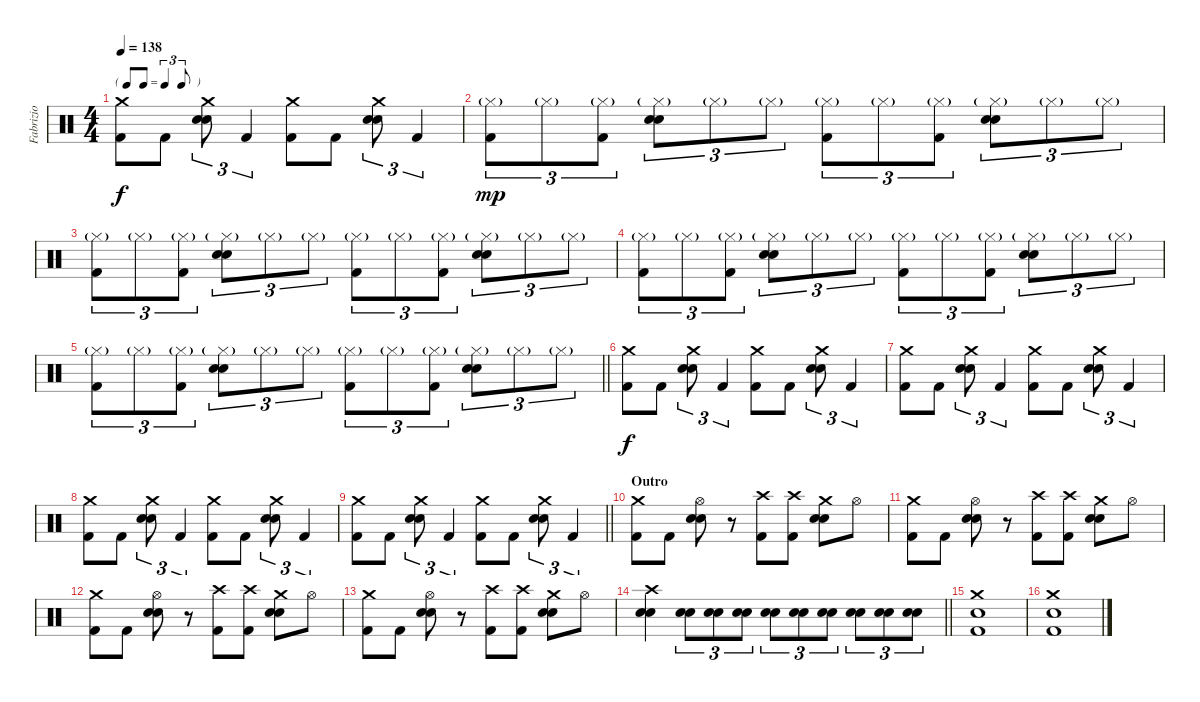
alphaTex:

\track ("Fabrizio" "Fabrizio") {instrument percussion}
\staff {score}
\articulation defaults
\ts (4 4)
\tf triplet8th
\tempo 138
\clef neutral
\ks c
("Crash medium (hit)" "Kick (hit) 2").8{dy f} "Kick (hit) 2".8 ("Crash medium (hit)" "Electric Snare (hit)" "Snare (hit) 2").8{tu (3 2)} "Kick (hit) 2".4{tu (3 2)} ("Crash medium (hit)" "Kick (hit) 2").8 "Kick (hit) 2".8 ("Crash medium (hit)" "Electric Snare (hit)" "Snare (hit) 2").8{tu (3 2)} "Kick (hit) 2".4{tu (3 2)} |
("Hi-Hat (closed)"{g} "Kick (hit) 2").8{tu (3 2) dy mp} "Hi-Hat (closed)"{g}.8{tu (3 2)} ("Hi-Hat (closed)"{g} "Kick (hit) 2").8{tu (3 2)} ("Hi-Hat (closed)"{g} "Electric Snare (hit)" "Snare (hit) 2").8{tu (3 2)} "Hi-Hat (closed)"{g}.8{tu (3 2)} "Hi-Hat (closed)"{g}.8{tu (3 2)} ("Hi-Hat (closed)"{g} "Kick (hit) 2").8{tu (3 2)} "Hi-Hat (closed)"{g}.8{tu (3 2)} ("Hi-Hat (closed)"{g} "Kick (hit) 2").8{tu (3 2)} ("Hi-Hat (closed)"{g} "Electric Snare (hit)" "Snare (hit) 2").8{tu (3 2)} "Hi-Hat (closed)"{g}.8{tu (3 2)} "Hi-Hat (closed)"{g}.8{tu (3 2)} |
("Hi-Hat (closed)"{g} "Kick (hit) 2").8{tu (3 2)} "Hi-Hat (closed)"{g}.8{tu (3 2)} ("Hi-Hat (closed)"{g} "Kick (hit) 2").8{tu (3 2)} ("Hi-Hat (closed)"{g} "Electric Snare (hit)" "Snare (hit) 2").8{tu (3 2)} "Hi-Hat (closed)"{g}.8{tu (3 2)} "Hi-Hat (closed)"{g}.8{tu (3 2)} ("Hi-Hat (closed)"{g} "Kick (hit) 2").8{tu (3 2)} "Hi-Hat (closed)"{g}.8{tu (3 2)} ("Hi-Hat (closed)"{g} "Kick (hit) 2").8{tu (3 2)} ("Hi-Hat (closed)"{g} "Electric Snare (hit)" "Snare (hit) 2").8{tu (3 2)} "Hi-Hat (closed)"{g}.8{tu (3 2)} "Hi-Hat (closed)"{g}.8{tu (3 2)} |
("Hi-Hat (closed)"{g} "Kick (hit) 2").8{tu (3 2)} "Hi-Hat (closed)"{g}.8{tu (3 2)} ("Hi-Hat (closed)"{g} "Kick (hit) 2").8{tu (3 2)} ("Hi-Hat (closed)"{g} "Electric Snare (hit)" "Snare (hit) 2").8{tu (3 2)} "Hi-Hat (closed)"{g}.8{tu (3 2)} "Hi-Hat (closed)"{g}.8{tu (3 2)} ("Hi-Hat (closed)"{g} "Kick (hit) 2").8{tu (3 2)} "Hi-Hat (closed)"{g}.8{tu (3 2)} ("Hi-Hat (closed)"{g} "Kick (hit) 2").8{tu (3 2)} ("Hi-Hat (closed)"{g} "Electric Snare (hit)" "Snare (hit) 2").8{tu (3 2)} "Hi-Hat (closed)"{g}.8{tu (3 2)} "Hi-Hat (closed)"{g}.8{tu (3 2)} |
\barLineRight lightlight
("Hi-Hat (closed)"{g} "Kick (hit) 2").8{tu (3 2)} "Hi-Hat (closed)"{g}.8{tu (3 2)} ("Hi-Hat (closed)"{g} "Kick (hit) 2").8{tu (3 2)} ("Hi-Hat (closed)"{g} "Electric Snare (hit)" "Snare (hit) 2").8{tu (3 2)} "Hi-Hat (closed)"{g}.8{tu (3 2)} "Hi-Hat (closed)"{g}.8{tu (3 2)} ("Hi-Hat (closed)"{g} "Kick (hit) 2").8{tu (3 2)} "Hi-Hat (closed)"{g}.8{tu (3 2)} ("Hi-Hat (closed)"{g} "Kick (hit) 2").8{tu (3 2)} ("Hi-Hat (closed)"{g} "Electric Snare (hit)" "Snare (hit) 2").8{tu (3 2)} "Hi-Hat (closed)"{g}.8{tu (3 2)} "Hi-Hat (closed)"{g}.8{tu (3 2)} |
("Crash medium (hit)" "Kick (hit) 2").8{dy f} "Kick (hit) 2".8 ("Crash medium (hit)" "Electric Snare (hit)" "Snare (hit) 2").8{tu (3 2)} "Kick (hit) 2".4{tu (3 2)} ("Crash medium (hit)" "Kick (hit) 2").8 "Kick (hit) 2".8 ("Crash medium (hit)" "Electric Snare (hit)" "Snare (hit) 2").8{tu (3 2)} "Kick (hit) 2".4{tu (3 2)} |
("Crash medium (hit)" "Kick (hit) 2").8 "Kick (hit) 2".8 ("Crash medium (hit)" "Electric Snare (hit)" "Snare (hit) 2").8{tu (3 2)} "Kick (hit) 2".4{tu (3 2)} ("Crash medium (hit)" "Kick (hit) 2").8 "Kick (hit) 2".8 ("Crash medium (hit)" "Electric Snare (hit)" "Snare (hit) 2").8{tu (3 2)} "Kick (hit) 2".4{tu (3 2)} |
("Crash medium (hit)" "Kick (hit) 2").8 "Kick (hit) 2".8 ("Crash medium (hit)" "Electric Snare (hit)" "Snare (hit) 2").8{tu (3 2)} "Kick (hit) 2".4{tu (3 2)} ("Crash medium (hit)" "Kick (hit) 2").8 "Kick (hit) 2".8 ("Crash medium (hit)" "Electric Snare (hit)" "Snare (hit) 2").8{tu (3 2)} "Kick (hit) 2".4{tu (3 2)} |
\barLineRight lightlight
("Crash medium (hit)" "Kick (hit) 2").8 "Kick (hit) 2".8 ("Crash medium (hit)" "Electric Snare (hit)" "Snare (hit) 2").8{tu (3 2)} "Kick (hit) 2".4{tu (3 2)} ("Crash medium (hit)" "Kick (hit) 2").8 "Kick (hit) 2".8 ("Crash medium (hit)" "Electric Snare (hit)" "Snare (hit) 2").8{tu (3 2)} "Kick (hit) 2".4{tu (3 2)} |
\section ("" "Outro")
("Crash medium (hit)" "Kick (hit) 2").8 "Kick (hit) 2".8 ("Hi-Hat (open)" "Electric Snare (hit)" "Snare (hit) 2").8 r.8 ("Crash high (hit)" "Kick (hit) 2").8 ("Crash high (hit)" "Kick (hit) 2").8 ("Crash medium (hit)" "Electric Snare (hit)" "Snare (hit) 2").8 "Hi-Hat (open)".8 |
("Crash medium (hit)" "Kick (hit) 2").8 "Kick (hit) 2".8 ("Hi-Hat (open)" "Electric Snare (hit)" "Snare (hit) 2").8 r.8 ("Crash high (hit)" "Kick (hit) 2").8 ("Crash high (hit)" "Kick (hit) 2").8 ("Crash medium (hit)" "Electric Snare (hit)" "Snare (hit) 2").8 "Hi-Hat (open)".8 |
("Crash medium (hit)" "Kick (hit) 2").8 "Kick (hit) 2".8 ("Hi-Hat (open)" "Electric Snare (hit)" "Snare (hit) 2").8 r.8 ("Crash high (hit)" "Kick (hit) 2").8 ("Crash high (hit)" "Kick (hit) 2").8 ("Crash medium (hit)" "Electric Snare (hit)" "Snare (hit) 2").8 "Hi-Hat (open)".8 |
("Crash medium (hit)" "Kick (hit) 2").8 "Kick (hit) 2".8 ("Hi-Hat (open)" "Electric Snare (hit)" "Snare (hit) 2").8 r.8 ("Crash high (hit)" "Kick (hit) 2").8 ("Crash high (hit)" "Kick (hit) 2").8 ("Crash medium (hit)" "Electric Snare (hit)" "Snare (hit) 2").8 "Hi-Hat (open)".8 |
\barLineRight lightlight
("Crash high (hit)" "Electric Snare (hit)" "Snare (hit) 2").4 ("Electric Snare (hit)" "Snare (hit) 2").8{tu (3 2)} ("Electric Snare (hit)" "Snare (hit) 2").8{tu (3 2)} ("Electric Snare (hit)" "Snare (hit) 2").8{tu (3 2)} ("Electric Snare (hit)" "Snare (hit) 2").8{tu (3 2)} ("Electric Snare (hit)" "Snare (hit) 2").8{tu (3 2)} ("Electric Snare (hit)" "Snare (hit) 2").8{tu (3 2)} ("Electric Snare (hit)" "Snare (hit) 2").8{tu (3 2)} ("Electric Snare (hit)" "Snare (hit) 2").8{tu (3 2)} ("Electric Snare (hit)" "Snare (hit) 2").8{tu (3 2)} |
("Crash medium (hit)" "Electric Snare (hit)" "Kick (hit) 2").1 |
("Crash medium (hit)" "Electric Snare (hit)" "Kick (hit) 2").1
